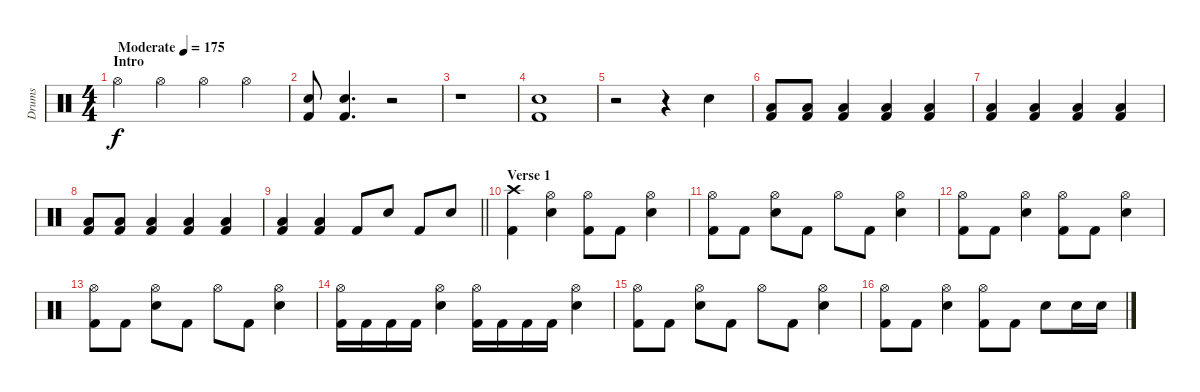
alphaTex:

\track ("Drums" "Drums") {instrument percussion}
\staff {score}
\articulation defaults
\ts (4 4)
\section ("" "Intro")
\tempo (175 "Moderate")
\clef neutral
\ks c "Hi-Hat (open)".4{dy f} "Hi-Hat (open)".4 "Hi-Hat (open)".4 "Hi-Hat (open)".4
|
("Electric Snare (hit)" "Kick (hit) 2").8 ("Electric Snare (hit)" "Kick (hit) 2").4{d} r.2 |
r.1 |
("Electric Snare (hit)" "Kick (hit) 2").1 |
r.2 r.4 "Electric Snare (hit)".4 |
("Low Floor Tom (hit)" "Kick (hit) 2").8 ("Low Floor Tom (hit)" "Kick (hit) 2").8 ("Low Floor Tom (hit)" "Kick (hit) 2").4 ("Low Floor Tom (hit)" "Kick (hit) 2").4 ("Low Floor Tom (hit)" "Kick (hit) 2").4 |
("Low Floor Tom (hit)" "Kick (hit) 2").4 ("Low Floor Tom (hit)" "Kick (hit) 2").4 ("Low Floor Tom (hit)" "Kick (hit) 2").4 ("Low Floor Tom (hit)" "Kick (hit) 2").4 |
("Low Floor Tom (hit)" "Kick (hit) 2").8 ("Low Floor Tom (hit)" "Kick (hit) 2").8 ("Low Floor Tom (hit)" "Kick (hit) 2").4 ("Low Floor Tom (hit)" "Kick (hit) 2").4 ("Low Floor Tom (hit)" "Kick (hit) 2").4 |
\barLineRight lightlight
("Low Floor Tom (hit)" "Kick (hit) 2").4 ("Low Floor Tom (hit)" "Kick (hit) 2").4 "Kick (hit) 2".8 "Electric Snare (hit)".8 "Kick (hit) 2".8 "Electric Snare (hit)".8 |
\section ("" "Verse 1")
("Crash high (hit)" "Kick (hit) 2").4 ("Hi-Hat (open)" "Electric Snare (hit)").4 ("Hi-Hat (open)" "Kick (hit) 2").8 "Kick (hit) 2".8 ("Hi-Hat (open)" "Electric Snare (hit)").4 |
("Hi-Hat (open)" "Kick (hit) 2").8 "Kick (hit) 2".8 ("Hi-Hat (open)" "Electric Snare (hit)").8 "Kick (hit) 2".8 "Hi-Hat (open)".8 "Kick (hit) 2".8 ("Hi-Hat (open)" "Electric Snare (hit)").4 |
("Hi-Hat (open)" "Kick (hit) 2").8 "Kick (hit) 2".8 ("Hi-Hat (open)" "Electric Snare (hit)").4 ("Hi-Hat (open)" "Kick (hit) 2").8 "Kick (hit) 2".8 ("Hi-Hat (open)" "Electric Snare (hit)").4 |
("Hi-Hat (open)" "Kick (hit) 2").8 "Kick (hit) 2".8 ("Hi-Hat (open)" "Electric Snare (hit)").8 "Kick (hit) 2".8 "Hi-Hat (open)".8 "Kick (hit) 2".8 ("Hi-Hat (open)" "Electric Snare (hit)").4 |
("Hi-Hat (open)" "Kick (hit) 2").16 "Kick (hit) 2".16 "Kick (hit) 2".16 "Kick (hit) 2".16 ("Hi-Hat (open)" "Electric Snare (hit)").4 ("Hi-Hat (open)" "Kick (hit) 2").16 "Kick (hit) 2".16 "Kick (hit) 2".16 "Kick (hit) 2".16 ("Hi-Hat (open)" "Electric Snare (hit)").4 |
("Hi-Hat (open)" "Kick (hit) 2").8 "Kick (hit) 2".8 ("Hi-Hat (open)" "Electric Snare (hit)").8 "Kick (hit) 2".8 "Hi-Hat (open)".8 "Kick (hit) 2".8 ("Hi-Hat (open)" "Electric Snare (hit)").4 |
("Hi-Hat (open)" "Kick (hit) 2").8 "Kick (hit) 2".8 ("Hi-Hat (open)" "Electric Snare (hit)").4 ("Hi-Hat (open)" "Kick (hit) 2").8 "Kick (hit) 2".8 "Electric Snare (hit)".8 "Electric Snare (hit)".16 "Electric Snare (hit)".16
